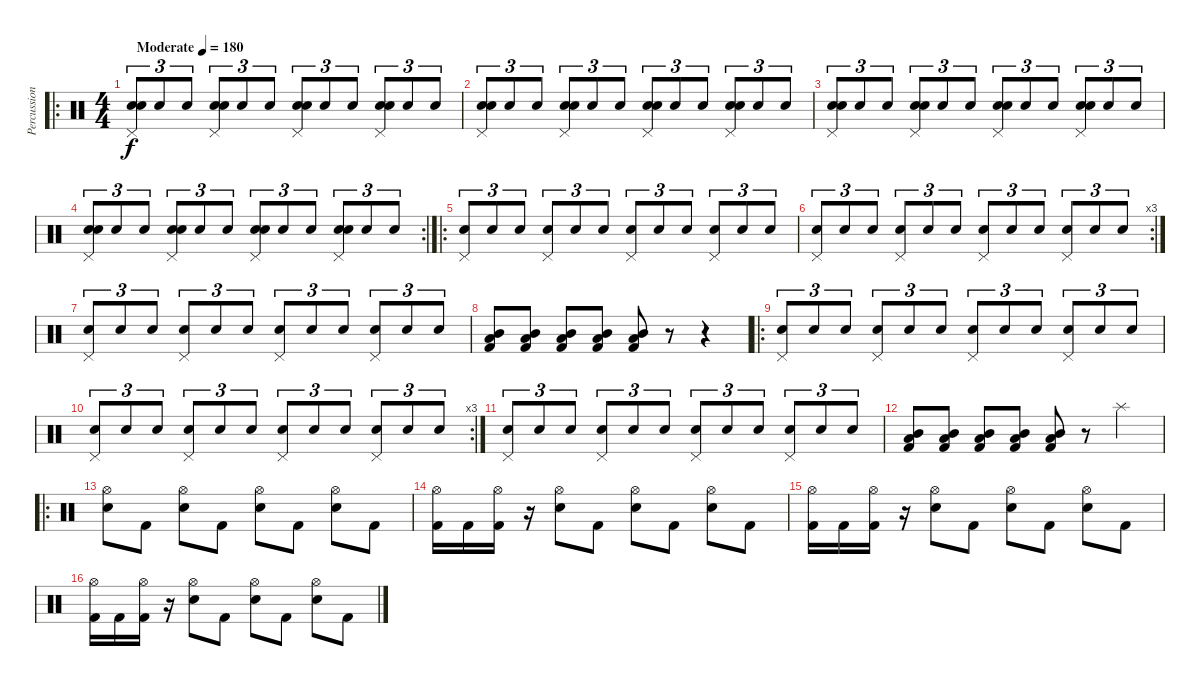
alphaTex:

\track ("Percussion" "Percussion") {instrument percussion}
\staff {score}
\articulation defaults
\ro
\ts (4 4)
\tempo (180 "Moderate")
\clef neutral
\ks c
("Pedal Hi-Hat (hit)" "Snare (hit) 2" "Snare (hit) 2").8{tu (3 2) dy f} "Snare (hit) 2".8{tu (3 2)} "Snare (hit) 2".8{tu (3 2)} ("Pedal Hi-Hat (hit)" "Snare (hit) 2" "Snare (hit) 2").8{tu (3 2)} "Snare (hit) 2".8{tu (3 2)} "Snare (hit) 2".8{tu (3 2)} ("Pedal Hi-Hat (hit)" "Snare (hit) 2" "Snare (hit) 2").8{tu (3 2)} "Snare (hit) 2".8{tu (3 2)} "Snare (hit) 2".8{tu (3 2)} ("Pedal Hi-Hat (hit)" "Snare (hit) 2" "Snare (hit) 2").8{tu (3 2)} "Snare (hit) 2".8{tu (3 2)} "Snare (hit) 2".8{tu (3 2)} |
("Pedal Hi-Hat (hit)" "Snare (hit) 2" "Snare (hit) 2").8{tu (3 2)} "Snare (hit) 2".8{tu (3 2)} "Snare (hit) 2".8{tu (3 2)} ("Pedal Hi-Hat (hit)" "Snare (hit) 2" "Snare (hit) 2").8{tu (3 2)} "Snare (hit) 2".8{tu (3 2)} "Snare (hit) 2".8{tu (3 2)} ("Pedal Hi-Hat (hit)" "Snare (hit) 2" "Snare (hit) 2").8{tu (3 2)} "Snare (hit) 2".8{tu (3 2)} "Snare (hit) 2".8{tu (3 2)} ("Pedal Hi-Hat (hit)" "Snare (hit) 2" "Snare (hit) 2").8{tu (3 2)} "Snare (hit) 2".8{tu (3 2)} "Snare (hit) 2".8{tu (3 2)} |
("Pedal Hi-Hat (hit)" "Snare (hit) 2" "Snare (hit) 2").8{tu (3 2)} "Snare (hit) 2".8{tu (3 2)} "Snare (hit) 2".8{tu (3 2)} ("Pedal Hi-Hat (hit)" "Snare (hit) 2" "Snare (hit) 2").8{tu (3 2)} "Snare (hit) 2".8{tu (3 2)} "Snare (hit) 2".8{tu (3 2)} ("Pedal Hi-Hat (hit)" "Snare (hit) 2" "Snare (hit) 2").8{tu (3 2)} "Snare (hit) 2".8{tu (3 2)} "Snare (hit) 2".8{tu (3 2)} ("Pedal Hi-Hat (hit)" "Snare (hit) 2" "Snare (hit) 2").8{tu (3 2)} "Snare (hit) 2".8{tu (3 2)} "Snare (hit) 2".8{tu (3 2)} |
\rc 2
("Pedal Hi-Hat (hit)" "Snare (hit) 2" "Snare (hit) 2").8{tu (3 2)} "Snare (hit) 2".8{tu (3 2)} "Snare (hit) 2".8{tu (3 2)} ("Pedal Hi-Hat (hit)" "Snare (hit) 2" "Snare (hit) 2").8{tu (3 2)} "Snare (hit) 2".8{tu (3 2)} "Snare (hit) 2".8{tu (3 2)} ("Pedal Hi-Hat (hit)" "Snare (hit) 2" "Snare (hit) 2").8{tu (3 2)} "Snare (hit) 2".8{tu (3 2)} "Snare (hit) 2".8{tu (3 2)} ("Pedal Hi-Hat (hit)" "Snare (hit) 2" "Snare (hit) 2").8{tu (3 2)} "Snare (hit) 2".8{tu (3 2)} "Snare (hit) 2".8{tu (3 2)} |
\ro
("Pedal Hi-Hat (hit)" "Snare (hit) 2").8{tu (3 2)} "Snare (hit) 2".8{tu (3 2)} "Snare (hit) 2".8{tu (3 2)} ("Pedal Hi-Hat (hit)" "Snare (hit) 2").8{tu (3 2)} "Snare (hit) 2".8{tu (3 2)} "Snare (hit) 2".8{tu (3 2)} ("Pedal Hi-Hat (hit)" "Snare (hit) 2").8{tu (3 2)} "Snare (hit) 2".8{tu (3 2)} "Snare (hit) 2".8{tu (3 2)} ("Pedal Hi-Hat (hit)" "Snare (hit) 2").8{tu (3 2)} "Snare (hit) 2".8{tu (3 2)} "Snare (hit) 2".8{tu (3 2)} |
\rc 3
("Pedal Hi-Hat (hit)" "Snare (hit) 2").8{tu (3 2)} "Snare (hit) 2".8{tu (3 2)} "Snare (hit) 2".8{tu (3 2)} ("Pedal Hi-Hat (hit)" "Snare (hit) 2").8{tu (3 2)} "Snare (hit) 2".8{tu (3 2)} "Snare (hit) 2".8{tu (3 2)} ("Pedal Hi-Hat (hit)" "Snare (hit) 2").8{tu (3 2)} "Snare (hit) 2".8{tu (3 2)} "Snare (hit) 2".8{tu (3 2)} ("Pedal Hi-Hat (hit)" "Snare (hit) 2").8{tu (3 2)} "Snare (hit) 2".8{tu (3 2)} "Snare (hit) 2".8{tu (3 2)} |
("Pedal Hi-Hat (hit)" "Snare (hit) 2").8{tu (3 2) volume 12} "Snare (hit) 2".8{tu (3 2)} "Snare (hit) 2".8{tu (3 2)} ("Pedal Hi-Hat (hit)" "Snare (hit) 2").8{tu (3 2)} "Snare (hit) 2".8{tu (3 2)} "Snare (hit) 2".8{tu (3 2)} ("Pedal Hi-Hat (hit)" "Snare (hit) 2").8{tu (3 2)} "Snare (hit) 2".8{tu (3 2)} "Snare (hit) 2".8{tu (3 2)} ("Pedal Hi-Hat (hit)" "Snare (hit) 2").8{tu (3 2)} "Snare (hit) 2".8{tu (3 2)} "Snare (hit) 2".8{tu (3 2)} |
("Mid Tom (hit)" "Low Floor Tom (hit)" "Kick (hit) 2").8 ("Mid Tom (hit)" "Low Floor Tom (hit)" "Kick (hit) 2").8 ("Mid Tom (hit)" "Low Floor Tom (hit)" "Kick (hit) 2").8 ("Mid Tom (hit)" "Low Floor Tom (hit)" "Kick (hit) 2").8 ("Mid Tom (hit)" "Low Floor Tom (hit)" "Kick (hit) 2").8 r.8 r.4 |
\ro
("Pedal Hi-Hat (hit)" "Snare (hit) 2").8{tu (3 2)} "Snare (hit) 2".8{tu (3 2)} "Snare (hit) 2".8{tu (3 2)} ("Pedal Hi-Hat (hit)" "Snare (hit) 2").8{tu (3 2)} "Snare (hit) 2".8{tu (3 2)} "Snare (hit) 2".8{tu (3 2)} ("Pedal Hi-Hat (hit)" "Snare (hit) 2").8{tu (3 2)} "Snare (hit) 2".8{tu (3 2)} "Snare (hit) 2".8{tu (3 2)} ("Pedal Hi-Hat (hit)" "Snare (hit) 2").8{tu (3 2)} "Snare (hit) 2".8{tu (3 2)} "Snare (hit) 2".8{tu (3 2)} |
\rc 3
("Pedal Hi-Hat (hit)" "Snare (hit) 2").8{tu (3 2)} "Snare (hit) 2".8{tu (3 2)} "Snare (hit) 2".8{tu (3 2)} ("Pedal Hi-Hat (hit)" "Snare (hit) 2").8{tu (3 2)} "Snare (hit) 2".8{tu (3 2)} "Snare (hit) 2".8{tu (3 2)} ("Pedal Hi-Hat (hit)" "Snare (hit) 2").8{tu (3 2)} "Snare (hit) 2".8{tu (3 2)} "Snare (hit) 2".8{tu (3 2)} ("Pedal Hi-Hat (hit)" "Snare (hit) 2").8{tu (3 2)} "Snare (hit) 2".8{tu (3 2)} "Snare (hit) 2".8{tu (3 2)} |
("Pedal Hi-Hat (hit)" "Snare (hit) 2").8{tu (3 2) volume 12} "Snare (hit) 2".8{tu (3 2)} "Snare (hit) 2".8{tu (3 2)} ("Pedal Hi-Hat (hit)" "Snare (hit) 2").8{tu (3 2)} "Snare (hit) 2".8{tu (3 2)} "Snare (hit) 2".8{tu (3 2)} ("Pedal Hi-Hat (hit)" "Snare (hit) 2").8{tu (3 2)} "Snare (hit) 2".8{tu (3 2)} "Snare (hit) 2".8{tu (3 2)} ("Pedal Hi-Hat (hit)" "Snare (hit) 2").8{tu (3 2)} "Snare (hit) 2".8{tu (3 2)} "Snare (hit) 2".8{tu (3 2)} |
("Mid Tom (hit)" "Low Floor Tom (hit)" "Kick (hit) 2").8 ("Mid Tom (hit)" "Low Floor Tom (hit)" "Kick (hit) 2").8 ("Mid Tom (hit)" "Low Floor Tom (hit)" "Kick (hit) 2").8 ("Mid Tom (hit)" "Low Floor Tom (hit)" "Kick (hit) 2").8 ("Mid Tom (hit)" "Low Floor Tom (hit)" "Kick (hit) 2").8 r.8 "Splash (hit)".4 |
\ro
("Hi-Hat (open)" "Snare (hit) 2").8 "Kick (hit) 2".8 ("Hi-Hat (open)" "Snare (hit) 2").8 "Kick (hit) 2".8 ("Hi-Hat (open)" "Snare (hit) 2").8 "Kick (hit) 2".8 ("Hi-Hat (open)" "Snare (hit) 2").8 "Kick (hit) 2".8 |
("Hi-Hat (open)" "Kick (hit) 2").16 "Kick (hit) 2".16 ("Hi-Hat (open)" "Kick (hit) 2").16 r.16 ("Hi-Hat (open)" "Snare (hit) 2").8 "Kick (hit) 2".8 ("Hi-Hat (open)" "Snare (hit) 2").8 "Kick (hit) 2".8 ("Hi-Hat (open)" "Snare (hit) 2").8 "Kick (hit) 2".8 |
("Hi-Hat (open)" "Kick (hit) 2").16 "Kick (hit) 2".16 ("Hi-Hat (open)" "Kick (hit) 2").16 r.16 ("Hi-Hat (open)" "Snare (hit) 2").8 "Kick (hit) 2".8 ("Hi-Hat (open)" "Snare (hit) 2").8 "Kick (hit) 2".8 ("Hi-Hat (open)" "Snare (hit) 2").8 "Kick (hit) 2".8 |
("Hi-Hat (open)" "Kick (hit) 2").16 "Kick (hit) 2".16 ("Hi-Hat (open)" "Kick (hit) 2").16 r.16 ("Hi-Hat (open)" "Snare (hit) 2").8 "Kick (hit) 2".8 ("Hi-Hat (open)" "Snare (hit) 2").8 "Kick (hit) 2".8 ("Hi-Hat (open)" "Snare (hit) 2").8 "Kick (hit) 2".8
